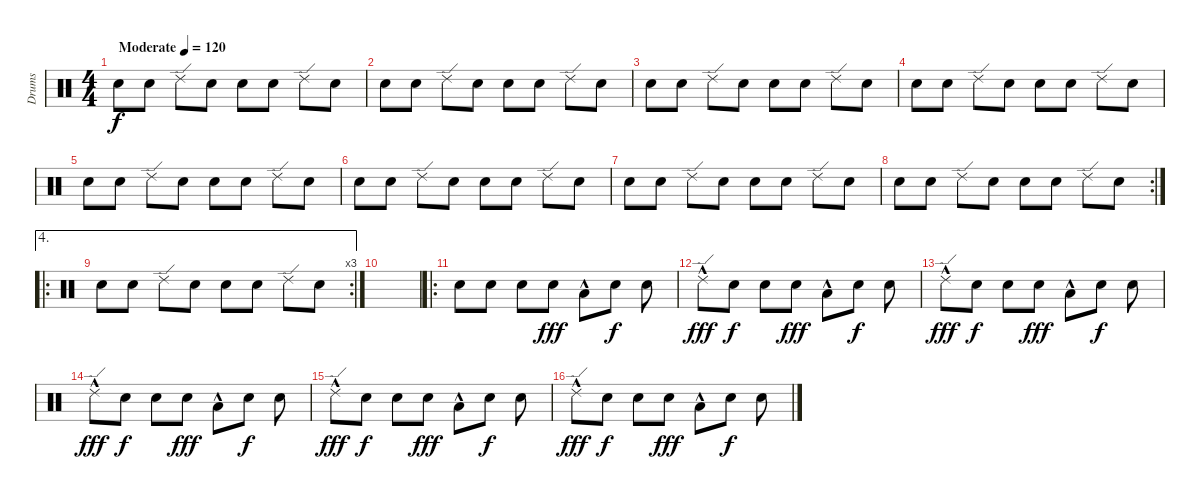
\track ("Drums" "Drums") {instrument percussion}
\staff {score}
\articulation defaults
\ts (4 4)
\tempo (120 "Moderate")
\clef neutral
\ks c "Snare (hit)".8{dy f} "Snare (hit)".8 "Ride (edge) 2".8 "Snare (hit)".8 "Snare (hit)".8 "Snare (hit)".8 "Ride (edge) 2".8 "Snare (hit)".8
|
"Snare (hit)".8 "Snare (hit)".8 "Ride (edge) 2".8 "Snare (hit)".8 "Snare (hit)".8 "Snare (hit)".8 "Ride (edge) 2".8 "Snare (hit)".8 |
"Snare (hit)".8 "Snare (hit)".8 "Ride (edge) 2".8 "Snare (hit)".8 "Snare (hit)".8 "Snare (hit)".8 "Ride (edge) 2".8 "Snare (hit)".8 |
"Snare (hit)".8 "Snare (hit)".8 "Ride (edge) 2".8 "Snare (hit)".8 "Snare (hit)".8 "Snare (hit)".8 "Ride (edge) 2".8 "Snare (hit)".8 |
"Snare (hit)".8 "Snare (hit)".8 "Ride (edge) 2".8 "Snare (hit)".8 "Snare (hit)".8 "Snare (hit)".8 "Ride (edge) 2".8 "Snare (hit)".8 |
"Snare (hit)".8 "Snare (hit)".8 "Ride (edge) 2".8 "Snare (hit)".8 "Snare (hit)".8 "Snare (hit)".8 "Ride (edge) 2".8 "Snare (hit)".8 |
"Snare (hit)".8 "Snare (hit)".8 "Ride (edge) 2".8 "Snare (hit)".8 "Snare (hit)".8 "Snare (hit)".8 "Ride (edge) 2".8 "Snare (hit)".8 |
\rc 2 "Snare (hit)".8 "Snare (hit)".8 "Ride (edge) 2".8 "Snare (hit)".8 "Snare (hit)".8 "Snare (hit)".8 "Ride (edge) 2".8 "Snare (hit)".8
|
\ae 4
\ro
\rc 3 "Snare (hit)".8 "Snare (hit)".8 "Ride (edge) 2".8 "Snare (hit)".8 "Snare (hit)".8 "Snare (hit)".8 "Ride (edge) 2".8 "Snare (hit)".8
|
|
\ro "Snare (hit)".8 "Snare (hit)".8 "Snare (hit)".8 "Snare (hit)".8{dy fff} "Low Tom (hit)"{hac}.8 "Snare (hit)".8{dy f} "Snare (hit)".8
|
"Ride (edge) 2"{hac}.8{dy fff} "Snare (hit)".8{dy f} "Snare (hit)".8 "Snare (hit)".8{dy fff} "Low Tom (hit)"{hac}.8 "Snare (hit)".8{dy f} "Snare (hit)".8 |
"Ride (edge) 2"{hac}.8{dy fff} "Snare (hit)".8{dy f} "Snare (hit)".8 "Snare (hit)".8{dy fff} "Low Tom (hit)"{hac}.8 "Snare (hit)".8{dy f} "Snare (hit)".8 |
"Ride (edge) 2"{hac}.8{dy fff} "Snare (hit)".8{dy f} "Snare (hit)".8 "Snare (hit)".8{dy fff} "Low Tom (hit)"{hac}.8 "Snare (hit)".8{dy f} "Snare (hit)".8 |
"Ride (edge) 2"{hac}.8{dy fff} "Snare (hit)".8{dy f} "Snare (hit)".8 "Snare (hit)".8{dy fff} "Low Tom (hit)"{hac}.8 "Snare (hit)".8{dy f} "Snare (hit)".8 |
"Ride (edge) 2"{hac}.8{dy fff} "Snare (hit)".8{dy f} "Snare (hit)".8 "Snare (hit)".8{dy fff} "Low Tom (hit)"{hac}.8 "Snare (hit)".8{dy f} "Snare (hit)".8
